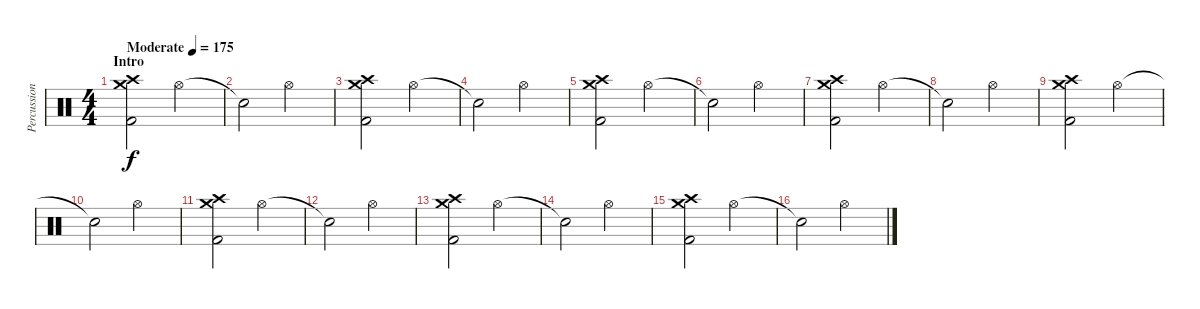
\track ("Percussion" "Percussion") {instrument percussion}
\staff {score}
\articulation defaults
\ts (4 4)
\section ("" "Intro")
\tempo (175 "Moderate")
\clef neutral
\ks c
("Crash medium (hit)" "Crash high (hit)" "Kick (hit) 2").2{dy f} "Hi-Hat (open)".2 |
"Snare (hit)"{t}.2 "Hi-Hat (open)".2 |
("Crash medium (hit)" "Crash high (hit)" "Kick (hit) 2").2 "Hi-Hat (open)".2 |
"Snare (hit)"{t}.2 "Hi-Hat (open)".2 |
("Crash medium (hit)" "Crash high (hit)" "Kick (hit) 2").2 "Hi-Hat (open)".2 |
"Snare (hit)"{t}.2 "Hi-Hat (open)".2 |
("Crash medium (hit)" "Crash high (hit)" "Kick (hit) 2").2 "Hi-Hat (open)".2 |
"Snare (hit)"{t}.2 "Hi-Hat (open)".2 |
("Crash medium (hit)" "Crash high (hit)" "Kick (hit) 2").2 "Hi-Hat (open)".2 |
"Snare (hit)"{t}.2 "Hi-Hat (open)".2 |
("Crash medium (hit)" "Crash high (hit)" "Kick (hit) 2").2 "Hi-Hat (open)".2 |
"Snare (hit)"{t}.2 "Hi-Hat (open)".2 |
("Crash medium (hit)" "Crash high (hit)" "Kick (hit) 2").2 "Hi-Hat (open)".2 |
"Snare (hit)"{t}.2 "Hi-Hat (open)".2 |
("Crash medium (hit)" "Crash high (hit)" "Kick (hit) 2").2 "Hi-Hat (open)".2 |
"Snare (hit)"{t}.2 "Hi-Hat (open)".2
